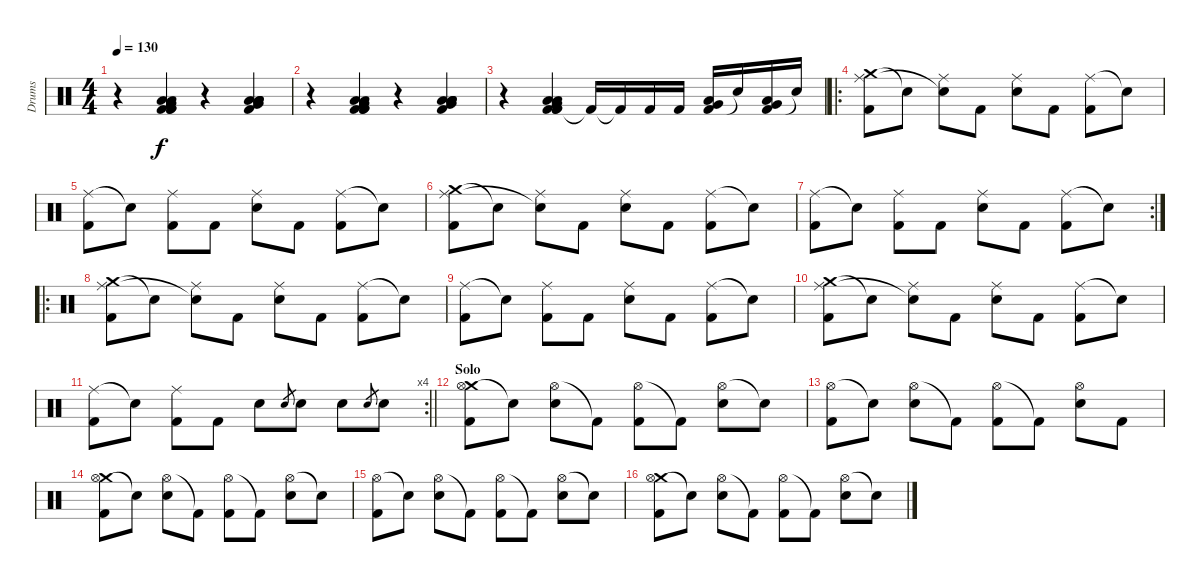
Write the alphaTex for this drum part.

\track ("Drums" "Drums") {instrument percussion}
\staff {score}
\articulation defaults
\ts (4 4)
\tempo 130
\clef neutral
\ks c
r.4{dy f} ("Kick (hit) 2" "Kick (hit) 2" "Kick (hit) 2" "Low Tom (hit)" "Very Low Tom (hit)" "Low Floor Tom (hit)").4 r.4 ("Low Floor Tom (hit)" "Low Floor Tom (hit)" "Kick (hit) 2" "Low Tom (hit)" "Very Low Tom (hit)" "Low Floor Tom (hit)").4 |
r.4 ("Kick (hit) 2" "Kick (hit) 2" "Kick (hit) 2" "Low Tom (hit)" "Very Low Tom (hit)" "Low Floor Tom (hit)").4 r.4 ("Low Floor Tom (hit)" "Low Floor Tom (hit)" "Kick (hit) 2" "Low Tom (hit)" "Very Low Tom (hit)" "Low Floor Tom (hit)").4 |
r.4 ("Kick (hit) 2" "Kick (hit) 2" "Kick (hit) 2" "Low Tom (hit)" "Very Low Tom (hit)" "Low Floor Tom (hit)").4 "Kick (hit) 2"{t}.16 "Kick (hit) 2"{t}.16 "Kick (hit) 2".16 "Kick (hit) 2".16 ("Kick (hit) 2" "Low Tom (hit)" "Very Low Tom (hit)").16 "Snare (hit)"{t}.16 ("Kick (hit) 2" "Low Tom (hit)" "Very Low Tom (hit)").16 "Snare (hit)"{t}.16 |
\ro
("Crash medium (hit)" "Ride (middle)" "Kick (hit) 2").8 "Snare (hit)"{t}.8 ("Ride (middle)" "Snare (hit)"{t}).8 "Kick (hit) 2".8 ("Ride (middle)" "Electric Snare (hit)").8 "Kick (hit) 2".8 ("Ride (middle)" "Kick (hit) 2").8 "Snare (hit)"{t}.8 |
("Ride (middle)" "Kick (hit) 2").8 "Snare (hit)"{t}.8 ("Ride (middle)" "Kick (hit) 2").8 "Kick (hit) 2".8 ("Ride (middle)" "Electric Snare (hit)").8 "Kick (hit) 2".8 ("Ride (middle)" "Kick (hit) 2").8 "Snare (hit)"{t}.8 |
("Crash medium (hit)" "Ride (middle)" "Kick (hit) 2").8 "Snare (hit)"{t}.8 ("Ride (middle)" "Snare (hit)"{t}).8 "Kick (hit) 2".8 ("Ride (middle)" "Electric Snare (hit)").8 "Kick (hit) 2".8 ("Ride (middle)" "Kick (hit) 2").8 "Snare (hit)"{t}.8 |
\rc 2
("Ride (middle)" "Kick (hit) 2").8 "Snare (hit)"{t}.8 ("Ride (middle)" "Kick (hit) 2").8 "Kick (hit) 2".8 ("Ride (middle)" "Electric Snare (hit)").8 "Kick (hit) 2".8 ("Ride (middle)" "Kick (hit) 2").8 "Snare (hit)"{t}.8 |
\ro
("Crash medium (hit)" "Ride (middle)" "Kick (hit) 2").8 "Snare (hit)"{t}.8 ("Ride (middle)" "Snare (hit)"{t}).8 "Kick (hit) 2".8 ("Ride (middle)" "Electric Snare (hit)").8 "Kick (hit) 2".8 ("Ride (middle)" "Kick (hit) 2").8 "Snare (hit)"{t}.8 |
("Ride (middle)" "Kick (hit) 2").8 "Snare (hit)"{t}.8 ("Ride (middle)" "Kick (hit) 2").8 "Kick (hit) 2".8 ("Ride (middle)" "Electric Snare (hit)").8 "Kick (hit) 2".8 ("Ride (middle)" "Kick (hit) 2").8 "Snare (hit)"{t}.8 |
("Crash medium (hit)" "Ride (middle)" "Kick (hit) 2").8 "Snare (hit)"{t}.8 ("Ride (middle)" "Snare (hit)"{t}).8 "Kick (hit) 2".8 ("Ride (middle)" "Electric Snare (hit)").8 "Kick (hit) 2".8 ("Ride (middle)" "Kick (hit) 2").8 "Snare (hit)"{t}.8 |
\rc 4
\barLineRight lightlight
("Ride (middle)" "Kick (hit) 2").8 "Snare (hit)"{t}.8 ("Ride (middle)" "Kick (hit) 2").8 "Kick (hit) 2".8 "Electric Snare (hit)".8 "Electric Snare (hit)".8{gr} "Electric Snare (hit)".8 "Electric Snare (hit)".8 "Electric Snare (hit)".8{gr} "Electric Snare (hit)".8 |
\section ("" "Solo")
("Crash medium (hit)" "Hi-Hat (open)" "Kick (hit) 2").8 "Snare (hit)"{t}.8 ("Hi-Hat (open)" "Electric Snare (hit)").8 "Kick (hit) 2"{t}.8 ("Hi-Hat (open)" "Kick (hit) 2").8 "Kick (hit) 2"{t}.8 ("Hi-Hat (open)" "Electric Snare (hit)").8 "Snare (hit)"{t}.8 |
("Hi-Hat (open)" "Kick (hit) 2").8 "Snare (hit)"{t}.8 ("Hi-Hat (open)" "Electric Snare (hit)").8 "Kick (hit) 2"{t}.8 ("Hi-Hat (open)" "Kick (hit) 2").8 "Kick (hit) 2"{t}.8 ("Hi-Hat (open)" "Electric Snare (hit)").8 "Kick (hit) 2".8 |
("Crash medium (hit)" "Hi-Hat (open)" "Kick (hit) 2").8 "Snare (hit)"{t}.8 ("Hi-Hat (open)" "Electric Snare (hit)").8 "Kick (hit) 2"{t}.8 ("Hi-Hat (open)" "Kick (hit) 2").8 "Kick (hit) 2"{t}.8 ("Hi-Hat (open)" "Electric Snare (hit)").8 "Snare (hit)"{t}.8 |
("Hi-Hat (open)" "Kick (hit) 2").8 "Snare (hit)"{t}.8 ("Hi-Hat (open)" "Electric Snare (hit)").8 "Kick (hit) 2"{t}.8 ("Hi-Hat (open)" "Kick (hit) 2").8 "Kick (hit) 2"{t}.8 ("Hi-Hat (open)" "Electric Snare (hit)").8 "Snare (hit)"{t}.8 |
("Crash medium (hit)" "Hi-Hat (open)" "Kick (hit) 2").8 "Snare (hit)"{t}.8 ("Hi-Hat (open)" "Electric Snare (hit)").8 "Kick (hit) 2"{t}.8 ("Hi-Hat (open)" "Kick (hit) 2").8 "Kick (hit) 2"{t}.8 ("Hi-Hat (open)" "Electric Snare (hit)").8 "Snare (hit)"{t}.8
